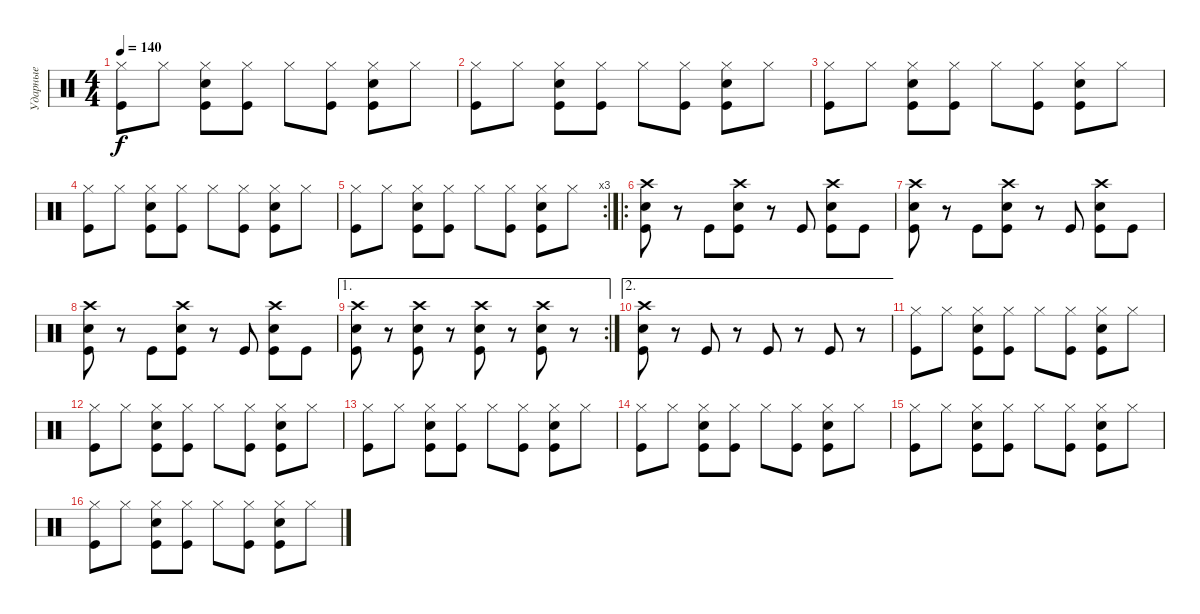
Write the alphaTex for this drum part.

\track ("Ударные" "Ударные") {instrument percussion}
\staff {score}
\articulation defaults
\ts (4 4)
\tempo 140
\clef neutral
\ks c
("Hi-Hat (closed)" "Kick (hit)").8{dy f} "Hi-Hat (closed)".8 ("Hi-Hat (closed)" "Snare (hit) 2" "Kick (hit)").8 ("Hi-Hat (closed)" "Kick (hit)").8 "Hi-Hat (closed)".8 ("Hi-Hat (closed)" "Kick (hit)").8 ("Hi-Hat (closed)" "Snare (hit) 2" "Kick (hit)").8 "Hi-Hat (closed)".8 |
("Hi-Hat (closed)" "Kick (hit)").8 "Hi-Hat (closed)".8 ("Hi-Hat (closed)" "Snare (hit) 2" "Kick (hit)").8 ("Hi-Hat (closed)" "Kick (hit)").8 "Hi-Hat (closed)".8 ("Hi-Hat (closed)" "Kick (hit)").8 ("Hi-Hat (closed)" "Snare (hit) 2" "Kick (hit)").8 "Hi-Hat (closed)".8 |
("Hi-Hat (closed)" "Kick (hit)").8 "Hi-Hat (closed)".8 ("Hi-Hat (closed)" "Snare (hit) 2" "Kick (hit)").8 ("Hi-Hat (closed)" "Kick (hit)").8 "Hi-Hat (closed)".8 ("Hi-Hat (closed)" "Kick (hit)").8 ("Hi-Hat (closed)" "Snare (hit) 2" "Kick (hit)").8 "Hi-Hat (closed)".8 |
("Hi-Hat (closed)" "Kick (hit)").8 "Hi-Hat (closed)".8 ("Hi-Hat (closed)" "Snare (hit) 2" "Kick (hit)").8 ("Hi-Hat (closed)" "Kick (hit)").8 "Hi-Hat (closed)".8 ("Hi-Hat (closed)" "Kick (hit)").8 ("Hi-Hat (closed)" "Snare (hit) 2" "Kick (hit)").8 "Hi-Hat (closed)".8 |
\rc 3
("Hi-Hat (closed)" "Kick (hit)").8 "Hi-Hat (closed)".8 ("Hi-Hat (closed)" "Snare (hit) 2" "Kick (hit)").8 ("Hi-Hat (closed)" "Kick (hit)").8 "Hi-Hat (closed)".8 ("Hi-Hat (closed)" "Kick (hit)").8 ("Hi-Hat (closed)" "Snare (hit) 2" "Kick (hit)").8 "Hi-Hat (closed)".8 |
\ro
("Crash high (hit)" "Snare (hit) 2" "Kick (hit)").8 r.8 "Kick (hit)".8 ("Crash high (hit)" "Snare (hit) 2" "Kick (hit)").8 r.8 "Kick (hit)".8 ("Crash high (hit)" "Snare (hit) 2" "Kick (hit)").8 "Kick (hit)".8 |
("Crash high (hit)" "Snare (hit) 2" "Kick (hit)").8 r.8 "Kick (hit)".8 ("Crash high (hit)" "Snare (hit) 2" "Kick (hit)").8 r.8 "Kick (hit)".8 ("Crash high (hit)" "Snare (hit) 2" "Kick (hit)").8 "Kick (hit)".8 |
("Crash high (hit)" "Snare (hit) 2" "Kick (hit)").8 r.8 "Kick (hit)".8 ("Crash high (hit)" "Snare (hit) 2" "Kick (hit)").8 r.8 "Kick (hit)".8 ("Crash high (hit)" "Snare (hit) 2" "Kick (hit)").8 "Kick (hit)".8 |
\ae 1
\rc 2
("Crash high (hit)" "Snare (hit) 2" "Kick (hit)").8 r.8 ("Crash high (hit)" "Snare (hit) 2" "Kick (hit)").8 r.8 ("Crash high (hit)" "Snare (hit) 2" "Kick (hit)").8 r.8 ("Crash high (hit)" "Snare (hit) 2" "Kick (hit)").8 r.8 |
\ae 2
("Crash high (hit)" "Snare (hit) 2" "Kick (hit)").8 r.8 "Kick (hit)".8 r.8 "Kick (hit)".8 r.8 "Kick (hit)".8 r.8 |
("Hi-Hat (closed)" "Kick (hit)").8 "Hi-Hat (closed)".8 ("Hi-Hat (closed)" "Snare (hit) 2" "Kick (hit)").8 ("Hi-Hat (closed)" "Kick (hit)").8 "Hi-Hat (closed)".8 ("Hi-Hat (closed)" "Kick (hit)").8 ("Hi-Hat (closed)" "Snare (hit) 2" "Kick (hit)").8 "Hi-Hat (closed)".8 |
("Hi-Hat (closed)" "Kick (hit)").8 "Hi-Hat (closed)".8 ("Hi-Hat (closed)" "Snare (hit) 2" "Kick (hit)").8 ("Hi-Hat (closed)" "Kick (hit)").8 "Hi-Hat (closed)".8 ("Hi-Hat (closed)" "Kick (hit)").8 ("Hi-Hat (closed)" "Snare (hit) 2" "Kick (hit)").8 "Hi-Hat (closed)".8 |
("Hi-Hat (closed)" "Kick (hit)").8 "Hi-Hat (closed)".8 ("Hi-Hat (closed)" "Snare (hit) 2" "Kick (hit)").8 ("Hi-Hat (closed)" "Kick (hit)").8 "Hi-Hat (closed)".8 ("Hi-Hat (closed)" "Kick (hit)").8 ("Hi-Hat (closed)" "Snare (hit) 2" "Kick (hit)").8 "Hi-Hat (closed)".8 |
("Hi-Hat (closed)" "Kick (hit)").8 "Hi-Hat (closed)".8 ("Hi-Hat (closed)" "Snare (hit) 2" "Kick (hit)").8 ("Hi-Hat (closed)" "Kick (hit)").8 "Hi-Hat (closed)".8 ("Hi-Hat (closed)" "Kick (hit)").8 ("Hi-Hat (closed)" "Snare (hit) 2" "Kick (hit)").8 "Hi-Hat (closed)".8 |
("Hi-Hat (closed)" "Kick (hit)").8 "Hi-Hat (closed)".8 ("Hi-Hat (closed)" "Snare (hit) 2" "Kick (hit)").8 ("Hi-Hat (closed)" "Kick (hit)").8 "Hi-Hat (closed)".8 ("Hi-Hat (closed)" "Kick (hit)").8 ("Hi-Hat (closed)" "Snare (hit) 2" "Kick (hit)").8 "Hi-Hat (closed)".8 |
("Hi-Hat (closed)" "Kick (hit)").8 "Hi-Hat (closed)".8 ("Hi-Hat (closed)" "Snare (hit) 2" "Kick (hit)").8 ("Hi-Hat (closed)" "Kick (hit)").8 "Hi-Hat (closed)".8 ("Hi-Hat (closed)" "Kick (hit)").8 ("Hi-Hat (closed)" "Snare (hit) 2" "Kick (hit)").8 "Hi-Hat (closed)".8
